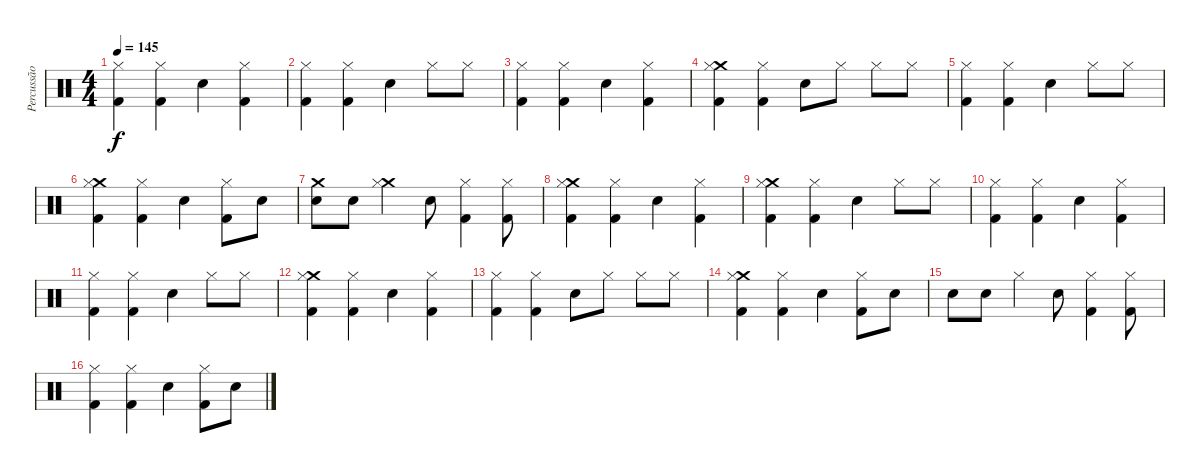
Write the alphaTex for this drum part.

\track ("Percussão" "Percussão") {instrument percussion}
\staff {score}
\articulation defaults
\ts (4 4)
\tempo 145
\clef neutral
\ks c
("Hi-Hat (closed)" "Kick (hit) 2").4{dy f} ("Hi-Hat (closed)" "Kick (hit) 2").4 "Snare (hit) 2".4 ("Hi-Hat (closed)" "Kick (hit) 2").4 |
("Hi-Hat (closed)" "Kick (hit) 2").4 ("Hi-Hat (closed)" "Kick (hit) 2").4 "Snare (hit) 2".4 "Hi-Hat (closed)".8 "Hi-Hat (closed)".8 |
("Hi-Hat (closed)" "Kick (hit) 2").4 ("Hi-Hat (closed)" "Kick (hit) 2").4 "Snare (hit) 2".4 ("Hi-Hat (closed)" "Kick (hit) 2").4 |
("Crash medium (hit)" "Hi-Hat (closed)" "Kick (hit) 2").4 ("Hi-Hat (closed)" "Kick (hit) 2").4 "Snare (hit) 2".8 "Hi-Hat (closed)".8 "Hi-Hat (closed)".8 "Hi-Hat (closed)".8 |
("Hi-Hat (closed)" "Kick (hit) 2").4 ("Hi-Hat (closed)" "Kick (hit) 2").4 "Snare (hit) 2".4 "Hi-Hat (closed)".8 "Hi-Hat (closed)".8 |
("Crash medium (hit)" "Hi-Hat (closed)" "Kick (hit) 2").4 ("Hi-Hat (closed)" "Kick (hit) 2").4 "Snare (hit) 2".4 ("Hi-Hat (closed)" "Kick (hit) 2").8 "Snare (hit) 2".8 |
("Crash medium (hit)" "Snare (hit) 2").8 "Snare (hit) 2".8 ("Crash medium (hit)" "Hi-Hat (closed)").4 "Snare (hit) 2".8 ("Hi-Hat (closed)" "Kick (hit) 2").4 ("Hi-Hat (closed)" "Kick (hit) 2").8 |
("Crash medium (hit)" "Hi-Hat (closed)" "Kick (hit) 2").4 ("Hi-Hat (closed)" "Kick (hit) 2").4 "Snare (hit) 2".4 ("Hi-Hat (closed)" "Kick (hit) 2").4 |
("Crash medium (hit)" "Hi-Hat (closed)" "Kick (hit) 2").4 ("Hi-Hat (closed)" "Kick (hit) 2").4 "Snare (hit) 2".4 "Hi-Hat (closed)".8 "Hi-Hat (closed)".8 |
("Hi-Hat (closed)" "Kick (hit) 2").4 ("Hi-Hat (closed)" "Kick (hit) 2").4 "Snare (hit) 2".4 ("Hi-Hat (closed)" "Kick (hit) 2").4 |
("Hi-Hat (closed)" "Kick (hit) 2").4 ("Hi-Hat (closed)" "Kick (hit) 2").4 "Snare (hit) 2".4 "Hi-Hat (closed)".8 "Hi-Hat (closed)".8 |
("Crash medium (hit)" "Hi-Hat (closed)" "Kick (hit) 2").4 ("Hi-Hat (closed)" "Kick (hit) 2").4 "Snare (hit) 2".4 ("Hi-Hat (closed)" "Kick (hit) 2").4 |
("Hi-Hat (closed)" "Kick (hit) 2").4 ("Hi-Hat (closed)" "Kick (hit) 2").4 "Snare (hit) 2".8 "Hi-Hat (closed)".8 "Hi-Hat (closed)".8 "Hi-Hat (closed)".8 |
("Crash medium (hit)" "Hi-Hat (closed)" "Kick (hit) 2").4 ("Hi-Hat (closed)" "Kick (hit) 2").4 "Snare (hit) 2".4 ("Hi-Hat (closed)" "Kick (hit) 2").8 "Snare (hit) 2".8 |
"Snare (hit) 2".8 "Snare (hit) 2".8 "Hi-Hat (closed)".4 "Snare (hit) 2".8 ("Hi-Hat (closed)" "Kick (hit) 2").4 ("Hi-Hat (closed)" "Kick (hit) 2").8 |
("Hi-Hat (closed)" "Kick (hit) 2").4 ("Hi-Hat (closed)" "Kick (hit) 2").4 "Snare (hit) 2".4 ("Hi-Hat (closed)" "Kick (hit) 2").8 "Snare (hit) 2".8
